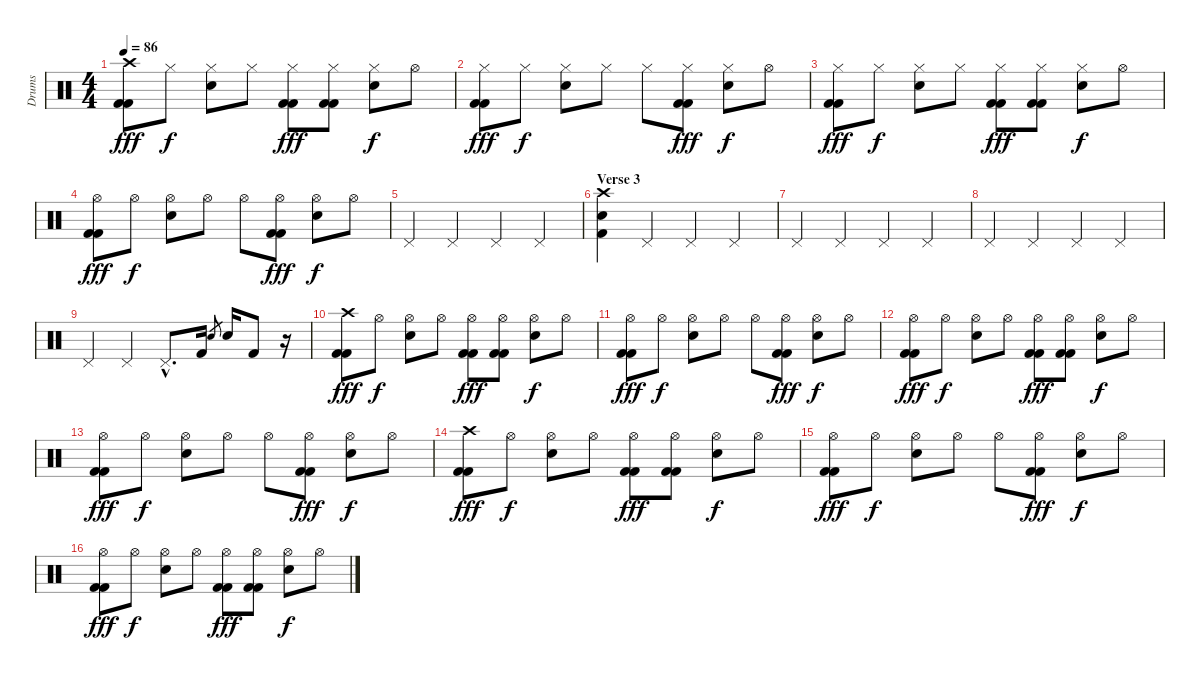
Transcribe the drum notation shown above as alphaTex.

\track ("Drums" "Drums") {instrument percussion}
\staff {score}
\articulation defaults
\ts (4 4)
\tempo 86
\clef neutral
\ks c
("Crash high (hit)" "Kick (hit) 2" "Kick (hit) 2").8{dy fff} "Hi-Hat (closed)".8{dy f} ("Hi-Hat (closed)" "Electric Snare (hit)").8 "Hi-Hat (closed)".8 ("Hi-Hat (closed)" "Kick (hit) 2" "Kick (hit) 2").8{dy fff} ("Hi-Hat (closed)" "Kick (hit) 2" "Kick (hit) 2").8 ("Hi-Hat (closed)" "Electric Snare (hit)").8{dy f} "Hi-Hat (open)".8 |
("Hi-Hat (closed)" "Kick (hit) 2" "Kick (hit) 2").8{dy fff} "Hi-Hat (closed)".8{dy f} ("Hi-Hat (closed)" "Electric Snare (hit)").8 "Hi-Hat (closed)".8 "Hi-Hat (closed)".8 ("Hi-Hat (closed)" "Kick (hit) 2" "Kick (hit) 2").8{dy fff} ("Hi-Hat (closed)" "Electric Snare (hit)").8{dy f} "Hi-Hat (open)".8 |
("Hi-Hat (closed)" "Kick (hit) 2" "Kick (hit) 2").8{dy fff} "Hi-Hat (closed)".8{dy f} ("Hi-Hat (closed)" "Electric Snare (hit)").8 "Hi-Hat (closed)".8 ("Hi-Hat (closed)" "Kick (hit) 2" "Kick (hit) 2").8{dy fff} ("Hi-Hat (closed)" "Kick (hit) 2" "Kick (hit) 2").8 ("Hi-Hat (closed)" "Electric Snare (hit)").8{dy f} "Hi-Hat (open)".8 |
("Hi-Hat (open)" "Kick (hit) 2" "Kick (hit) 2").8{dy fff} "Hi-Hat (open)".8{dy f} ("Hi-Hat (open)" "Electric Snare (hit)").8 "Hi-Hat (open)".8 "Hi-Hat (open)".8 ("Hi-Hat (open)" "Kick (hit) 2" "Kick (hit) 2").8{dy fff} ("Hi-Hat (open)" "Electric Snare (hit)").8{dy f} "Hi-Hat (open)".8 |
"Pedal Hi-Hat (hit)".4 "Pedal Hi-Hat (hit)".4 "Pedal Hi-Hat (hit)".4 "Pedal Hi-Hat (hit)".4 |
\section ("" "Verse 3")
("Crash high (hit)" "Electric Snare (hit)" "Kick (hit) 2").4 "Pedal Hi-Hat (hit)".4 "Pedal Hi-Hat (hit)".4 "Pedal Hi-Hat (hit)".4 |
"Pedal Hi-Hat (hit)".4 "Pedal Hi-Hat (hit)".4 "Pedal Hi-Hat (hit)".4 "Pedal Hi-Hat (hit)".4 |
"Pedal Hi-Hat (hit)".4 "Pedal Hi-Hat (hit)".4 "Pedal Hi-Hat (hit)".4 "Pedal Hi-Hat (hit)".4 |
"Pedal Hi-Hat (hit)".4 "Pedal Hi-Hat (hit)".4 "Pedal Hi-Hat (hit)"{hac}.8{d} "Kick (hit) 2".16 "Electric Snare (hit)".8{gr} "Electric Snare (hit)".16 "Kick (hit) 2".8 r.16 |
("Crash high (hit)" "Kick (hit) 2" "Kick (hit) 2").8{dy fff} "Hi-Hat (open)".8{dy f} ("Hi-Hat (open)" "Electric Snare (hit)").8 "Hi-Hat (open)".8 ("Hi-Hat (open)" "Kick (hit) 2" "Kick (hit) 2").8{dy fff} ("Hi-Hat (open)" "Kick (hit) 2" "Kick (hit) 2").8 ("Hi-Hat (open)" "Electric Snare (hit)").8{dy f} "Hi-Hat (open)".8 |
("Hi-Hat (open)" "Kick (hit) 2" "Kick (hit) 2").8{dy fff} "Hi-Hat (open)".8{dy f} ("Hi-Hat (open)" "Electric Snare (hit)").8 "Hi-Hat (open)".8 "Hi-Hat (open)".8 ("Hi-Hat (open)" "Kick (hit) 2" "Kick (hit) 2").8{dy fff} ("Hi-Hat (open)" "Electric Snare (hit)").8{dy f} "Hi-Hat (open)".8 |
("Hi-Hat (open)" "Kick (hit) 2" "Kick (hit) 2").8{dy fff} "Hi-Hat (open)".8{dy f} ("Hi-Hat (open)" "Electric Snare (hit)").8 "Hi-Hat (open)".8 ("Hi-Hat (open)" "Kick (hit) 2" "Kick (hit) 2").8{dy fff} ("Hi-Hat (open)" "Kick (hit) 2" "Kick (hit) 2").8 ("Hi-Hat (open)" "Electric Snare (hit)").8{dy f} "Hi-Hat (open)".8 |
("Hi-Hat (open)" "Kick (hit) 2" "Kick (hit) 2").8{dy fff} "Hi-Hat (open)".8{dy f} ("Hi-Hat (open)" "Electric Snare (hit)").8 "Hi-Hat (open)".8 "Hi-Hat (open)".8 ("Hi-Hat (open)" "Kick (hit) 2" "Kick (hit) 2").8{dy fff} ("Hi-Hat (open)" "Electric Snare (hit)").8{dy f} "Hi-Hat (open)".8 |
("Crash high (hit)" "Kick (hit) 2" "Kick (hit) 2").8{dy fff} "Hi-Hat (open)".8{dy f} ("Hi-Hat (open)" "Electric Snare (hit)").8 "Hi-Hat (open)".8 ("Hi-Hat (open)" "Kick (hit) 2" "Kick (hit) 2").8{dy fff} ("Hi-Hat (open)" "Kick (hit) 2" "Kick (hit) 2").8 ("Hi-Hat (open)" "Electric Snare (hit)").8{dy f} "Hi-Hat (open)".8 |
("Hi-Hat (open)" "Kick (hit) 2" "Kick (hit) 2").8{dy fff} "Hi-Hat (open)".8{dy f} ("Hi-Hat (open)" "Electric Snare (hit)").8 "Hi-Hat (open)".8 "Hi-Hat (open)".8 ("Hi-Hat (open)" "Kick (hit) 2" "Kick (hit) 2").8{dy fff} ("Hi-Hat (open)" "Electric Snare (hit)").8{dy f} "Hi-Hat (open)".8 |
("Hi-Hat (open)" "Kick (hit) 2" "Kick (hit) 2").8{dy fff} "Hi-Hat (open)".8{dy f} ("Hi-Hat (open)" "Electric Snare (hit)").8 "Hi-Hat (open)".8 ("Hi-Hat (open)" "Kick (hit) 2" "Kick (hit) 2").8{dy fff} ("Hi-Hat (open)" "Kick (hit) 2" "Kick (hit) 2").8 ("Hi-Hat (open)" "Electric Snare (hit)").8{dy f} "Hi-Hat (open)".8
